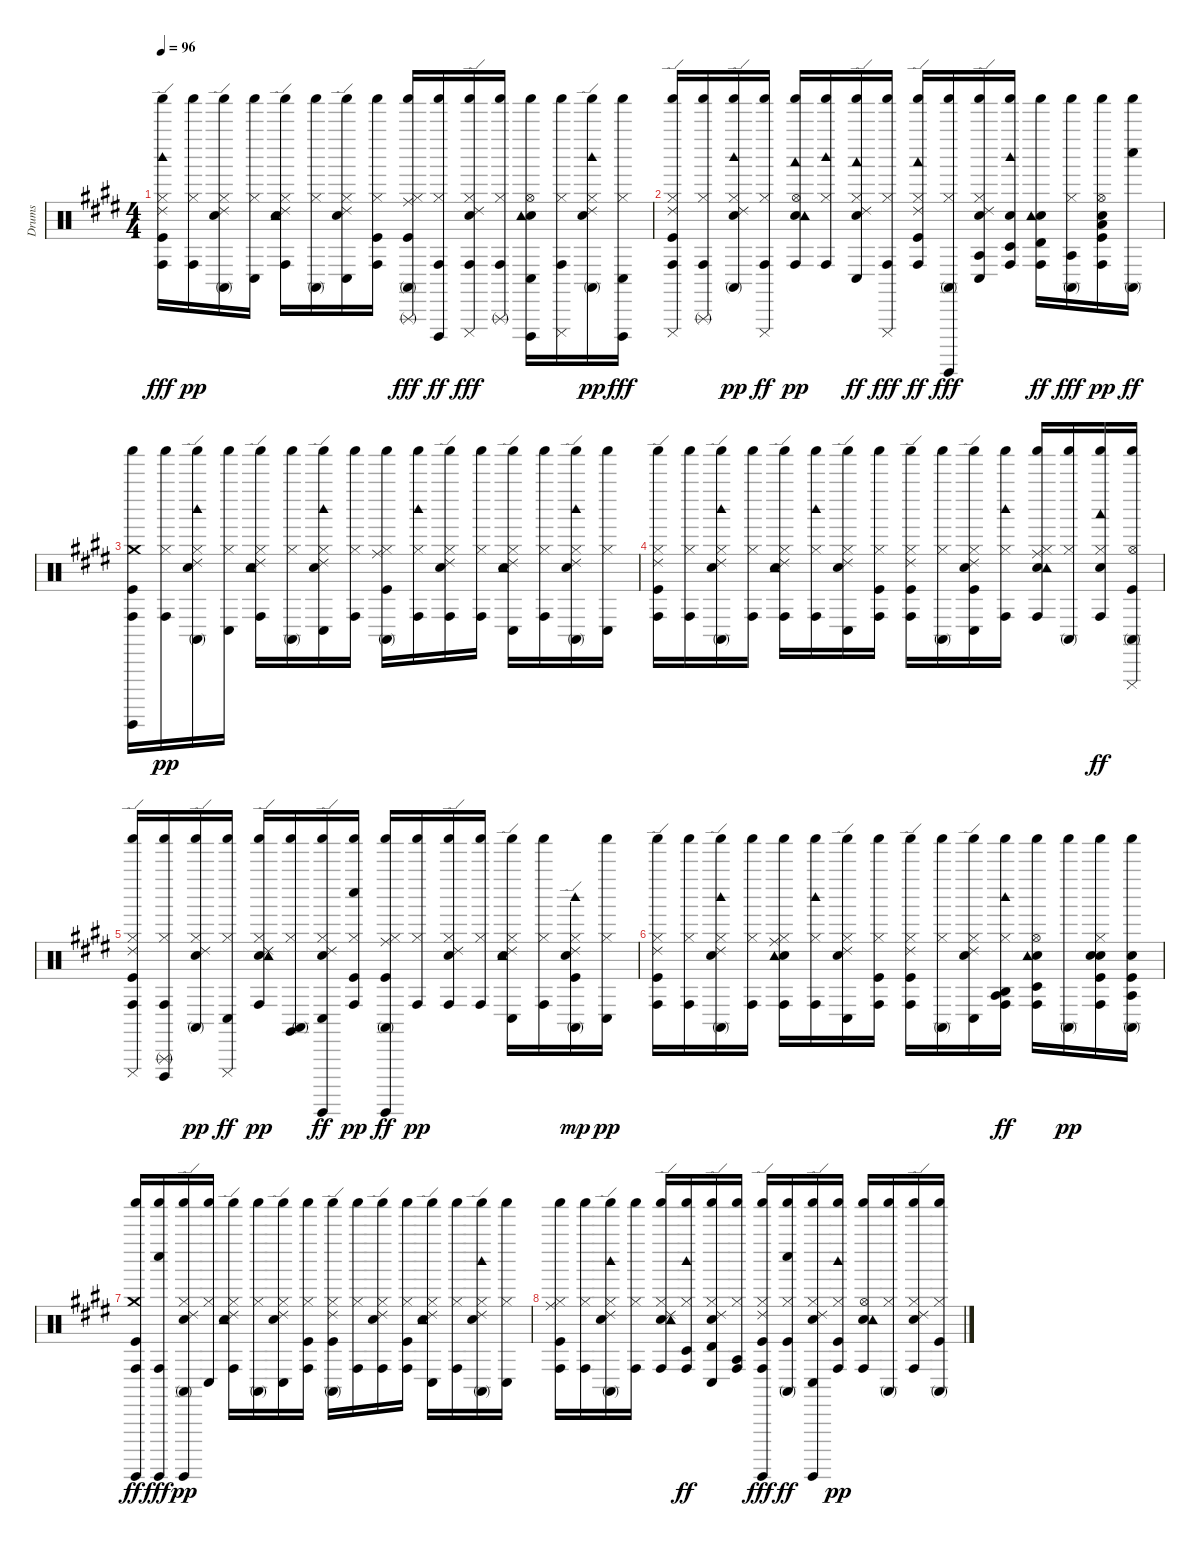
\track ("Drums" "Drums") {instrument percussion}
\staff {score}
\articulation defaults
\ts (4 4)
\tempo 96
\clef neutral
\ks e
("Kick (hit)" "Hi-Hat (closed)" "Ride (edge) 2" "Conga high (hit)" "Shaker (hit)" "Woodblock high (hit)").16{dy fff} ("Hi-Hat (closed)" "Conga high (hit)" "Shaker (hit)").16{dy pp} ("Hand Clap (hit)" "Hi-Hat (closed)" "Ride (edge) 2" "Conga high (mute)" "Shaker (hit)").16 ("Hi-Hat (closed)" "Conga low (hit)" "Shaker (hit)").16 ("Electric Snare (hit)" "Hi-Hat (closed)" "Tambourine (hit)" "Ride (edge) 2" "Conga high (hit)" "Shaker (hit)").16 ("Hi-Hat (closed)" "Conga high (mute)" "Shaker (hit)").16 ("Hand Clap (hit)" "Hi-Hat (closed)" "Ride (edge) 2" "Conga low (hit)" "Shaker (hit)").16 ("Kick (hit)" "Hi-Hat (closed)" "Conga high (hit)" "Shaker (hit)").16 ("Kick (hit)" "Hi-Hat (closed)" "Ride (middle)" "Conga high (mute)" "Shaker (hit)" "Triangle (rnute)").16{dy fff} ("Hi-Hat (closed)" "Conga high (hit)" "Shaker (hit)" "Cuica (open)").16{dy ff} ("Hand Clap (hit)" "Hi-Hat (closed)" "Ride (edge) 2" "Conga high (hit)" "Shaker (hit)" "Cuica (mute)").16{dy fff} ("Hi-Hat (closed)" "Conga high (hit)" "Shaker (hit)" "Triangle (rnute)").16 ("Electric Snare (hit)" "Hi-Hat (open)" "Tambourine (hit)" "Conga low (hit)" "Shaker (hit)" "Cuica (open)").16 ("Hi-Hat (closed)" "Conga high (hit)" "Shaker (hit)" "Cuica (mute)").16 ("Hand Clap (hit)" "Hi-Hat (closed)" "Ride (edge) 2" "Conga high (mute)" "Woodblock high (hit)" "Shaker (hit)").16{dy pp} ("Hi-Hat (closed)" "Conga low (hit)" "Shaker (hit)" "Cuica (open)").16{dy fff} |
("Kick (hit)" "Hi-Hat (closed)" "Ride (edge) 2" "Conga high (hit)" "Shaker (hit)" "Cuica (mute)").16 ("Hi-Hat (closed)" "Conga high (hit)" "Shaker (hit)" "Triangle (rnute)").16 ("Hand Clap (hit)" "Hi-Hat (closed)" "Ride (edge) 2" "Conga high (mute)" "Woodblock high (hit)" "Shaker (hit)").16{dy pp} ("Hi-Hat (closed)" "Conga high (hit)" "Shaker (hit)" "Cuica (mute)").16{dy ff} ("Electric Snare (hit)" "Hi-Hat (open)" "Tambourine (hit)" "Conga high (hit)" "Shaker (hit)" "Woodblock low (hit)").16{dy pp} ("Hi-Hat (closed)" "Conga high (hit)" "Woodblock high (hit)" "Shaker (hit)").16 ("Hand Clap (hit)" "Hi-Hat (closed)" "Ride (edge) 2" "Conga low (hit)" "Shaker (hit)" "Woodblock low (hit)").16{dy ff} ("Hi-Hat (closed)" "Conga high (hit)" "Shaker (hit)" "Cuica (mute)").16{dy fff} ("Kick (hit)" "Hi-Hat (closed)" "Ride (edge) 2" "Conga high (hit)" "Shaker (hit)" "Woodblock low (hit)").16{dy ff} ("Hi-Hat (closed)" "Conga high (mute)" "Shaker (hit)" "Guiro (hit)").16{dy fff} ("Hand Clap (hit)" "Hi-Hat (closed)" "Ride (edge) 2" "Conga low (hit)" "Shaker (hit)" "Agogo tow (hit)").16 ("Electric Snare (hit)" "Conga high (hit)" "Woodblock high (hit)" "Shaker (hit)" "Timbale low (hit)").16 ("Electric Snare (hit)" "Tambourine (hit)" "Conga high (hit)" "Shaker (hit)" "Timbale high (hit)").16{dy ff} ("Hi-Hat (closed)" "Conga high (mute)" "Shaker (hit)" "Agogo tow (hit)").16{dy fff} ("Kick (hit)" "Hand Clap (hit)" "Low Tom (hit)" "Hi-Hat (open)" "Conga high (hit)" "Shaker (hit)").16{dy pp} ("Conga high (mute)" "Shaker (hit)" "Whistle low (hit)").16{dy ff} |
("Kick (hit)" "Crash medium (hit)" "Conga high (hit)" "Shaker (hit)" "Guiro (hit)").16 ("Hi-Hat (closed)" "Conga high (hit)" "Shaker (hit)").16{dy pp} ("Hand Clap (hit)" "Hi-Hat (closed)" "Ride (edge) 2" "Conga high (mute)" "Woodblock high (hit)" "Shaker (hit)").16 ("Hi-Hat (closed)" "Conga low (hit)" "Shaker (hit)").16 ("Electric Snare (hit)" "Hi-Hat (closed)" "Tambourine (hit)" "Ride (edge) 2" "Conga high (hit)" "Shaker (hit)").16 ("Hi-Hat (closed)" "Conga high (mute)" "Shaker (hit)").16 ("Hand Clap (hit)" "Hi-Hat (closed)" "Ride (edge) 2" "Conga low (hit)" "Woodblock high (hit)" "Shaker (hit)").16 ("Hi-Hat (closed)" "Conga high (hit)" "Shaker (hit)").16 ("Kick (hit)" "Hi-Hat (closed)" "Ride (middle)" "Conga high (mute)" "Shaker (hit)").16 ("Hi-Hat (closed)" "Conga high (hit)" "Woodblock high (hit)" "Shaker (hit)").16 ("Hand Clap (hit)" "Hi-Hat (closed)" "Ride (edge) 2" "Conga high (hit)" "Shaker (hit)").16 ("Hi-Hat (closed)" "Conga high (hit)" "Shaker (hit)").16 ("Electric Snare (hit)" "Hi-Hat (closed)" "Tambourine (hit)" "Ride (edge) 2" "Conga low (hit)" "Shaker (hit)").16 ("Hi-Hat (closed)" "Conga high (hit)" "Shaker (hit)").16 ("Hand Clap (hit)" "Hi-Hat (closed)" "Ride (edge) 2" "Conga high (mute)" "Woodblock high (hit)" "Shaker (hit)").16 ("Hi-Hat (closed)" "Conga low (hit)" "Shaker (hit)").16 |
("Kick (hit)" "Hi-Hat (closed)" "Ride (edge) 2" "Conga high (hit)" "Shaker (hit)").16 ("Hi-Hat (closed)" "Conga high (hit)" "Shaker (hit)").16 ("Hand Clap (hit)" "Hi-Hat (closed)" "Ride (edge) 2" "Conga high (mute)" "Woodblock high (hit)" "Shaker (hit)").16 ("Hi-Hat (closed)" "Conga high (hit)" "Shaker (hit)").16 ("Electric Snare (hit)" "Hi-Hat (closed)" "Tambourine (hit)" "Ride (edge) 2" "Conga high (hit)" "Shaker (hit)").16 ("Hi-Hat (closed)" "Conga high (hit)" "Woodblock high (hit)" "Shaker (hit)").16 ("Hand Clap (hit)" "Hi-Hat (closed)" "Ride (edge) 2" "Conga low (hit)" "Shaker (hit)").16 ("Kick (hit)" "Hi-Hat (closed)" "Conga high (hit)" "Shaker (hit)").16 ("Kick (hit)" "Hi-Hat (closed)" "Ride (edge) 2" "Conga high (hit)" "Shaker (hit)").16 ("Hi-Hat (closed)" "Conga high (mute)" "Shaker (hit)").16 ("Kick (hit)" "Hand Clap (hit)" "Hi-Hat (closed)" "Ride (edge) 2" "Conga low (hit)" "Shaker (hit)").16 ("Hi-Hat (closed)" "Conga high (hit)" "Woodblock high (hit)" "Shaker (hit)").16 ("Electric Snare (hit)" "Hi-Hat (closed)" "Ride (middle)" "Tambourine (hit)" "Conga high (hit)" "Shaker (hit)").16 ("Hi-Hat (closed)" "Conga high (mute)" "Shaker (hit)").16 ("Hand Clap (hit)" "Hi-Hat (closed)" "Conga high (hit)" "Shaker (hit)" "Woodblock low (hit)").16{dy ff} ("Kick (hit)" "Hi-Hat (open)" "Conga high (mute)" "Shaker (hit)" "Cuica (mute)").16 |
("Kick (hit)" "Hi-Hat (closed)" "Ride (edge) 2" "Conga high (hit)" "Shaker (hit)" "Cuica (mute)").16 ("Hi-Hat (closed)" "Conga high (hit)" "Shaker (hit)" "Cuica (open)" "Triangle (rnute)").16 ("Hand Clap (hit)" "Hi-Hat (closed)" "Ride (edge) 2" "Conga high (mute)" "Shaker (hit)").16{dy pp} ("Hi-Hat (closed)" "Conga low (hit)" "Shaker (hit)" "Cuica (mute)").16{dy ff} ("Electric Snare (hit)" "Hi-Hat (closed)" "Tambourine (hit)" "Ride (edge) 2" "Conga high (hit)" "Shaker (hit)").16{dy pp} ("Hi-Hat (closed)" "Conga high (mute)" "Shaker (hit)" "Claves (hit)").16 ("Hand Clap (hit)" "Hi-Hat (closed)" "Ride (edge) 2" "Conga low (hit)" "Shaker (hit)" "Guiro (hit)").16{dy ff} ("Kick (hit)" "Hi-Hat (closed)" "Conga high (hit)" "Shaker (hit)" "Whistle low (hit)").16{dy pp} ("Kick (hit)" "Hi-Hat (closed)" "Ride (middle)" "Conga high (mute)" "Shaker (hit)" "Guiro (hit)").16{dy ff} ("Hi-Hat (closed)" "Conga high (hit)" "Shaker (hit)").16{dy pp} ("Hand Clap (hit)" "Hi-Hat (closed)" "Ride (edge) 2" "Conga high (hit)" "Shaker (hit)").16 ("Hi-Hat (closed)" "Conga high (hit)" "Shaker (hit)").16 ("Electric Snare (hit)" "Hi-Hat (closed)" "Tambourine (hit)" "Ride (edge) 2" "Conga low (hit)" "Shaker (hit)").16 ("Hi-Hat (closed)" "Conga high (hit)" "Shaker (hit)").16 ("Kick (hit)" "Hand Clap (hit)" "Hi-Hat (closed)" "Ride (edge) 2" "Conga high (mute)" "Woodblock high (hit)").16{dy mp} ("Hi-Hat (closed)" "Conga low (hit)" "Shaker (hit)").16{dy pp} |
("Kick (hit)" "Hi-Hat (closed)" "Ride (edge) 2" "Conga high (hit)" "Shaker (hit)").16 ("Hi-Hat (closed)" "Conga high (hit)" "Shaker (hit)").16 ("Hand Clap (hit)" "Hi-Hat (closed)" "Ride (edge) 2" "Conga high (mute)" "Woodblock high (hit)" "Shaker (hit)").16 ("Hi-Hat (closed)" "Conga high (hit)" "Shaker (hit)").16 ("Electric Snare (hit)" "Hi-Hat (closed)" "Ride (middle)" "Tambourine (hit)" "Conga high (hit)" "Shaker (hit)").16 ("Hi-Hat (closed)" "Conga high (hit)" "Woodblock high (hit)" "Shaker (hit)").16 ("Hand Clap (hit)" "Hi-Hat (closed)" "Ride (edge) 2" "Conga low (hit)" "Shaker (hit)").16 ("Kick (hit)" "Hi-Hat (closed)" "Conga high (hit)" "Shaker (hit)").16 ("Kick (hit)" "Hi-Hat (closed)" "Ride (edge) 2" "Conga high (hit)" "Shaker (hit)").16 ("Hi-Hat (closed)" "Conga high (mute)" "Shaker (hit)").16 ("Hand Clap (hit)" "Hi-Hat (closed)" "Ride (edge) 2" "Conga low (hit)" "Shaker (hit)").16 ("Hi-Hat (closed)" "Conga high (hit)" "Woodblock high (hit)" "Shaker (hit)" "Agogo high (hit)" "Agogo tow (hit)").16{dy ff} ("Electric Snare (hit)" "Hi-Hat (open)" "Tambourine (hit)" "Conga high (hit)" "Shaker (hit)" "Timbale low (hit)").16 ("Conga high (mute)" "Shaker (hit)").16{dy pp} ("Kick (hit)" "Hand Clap (hit)" "Electric Snare (hit)" "Hi-Hat (closed)" "Conga high (hit)" "Shaker (hit)").16 ("Kick (hit)" "Electric Snare (hit)" "Conga high (mute)" "Shaker (hit)" "Agogo tow (hit)").16 |
("Kick (hit)" "Crash medium (hit)" "Conga high (hit)" "Shaker (hit)" "Guiro (hit)").16{dy ff} ("Conga high (hit)" "Shaker (hit)" "Whistle low (hit)" "Guiro (hit)").16{dy fff} ("Hand Clap (hit)" "Hi-Hat (closed)" "Ride (edge) 2" "Conga high (mute)" "Shaker (hit)" "Guiro (hit)").16{dy pp} ("Hi-Hat (closed)" "Conga low (hit)" "Shaker (hit)").16 ("Electric Snare (hit)" "Hi-Hat (closed)" "Tambourine (hit)" "Ride (edge) 2" "Conga high (hit)" "Shaker (hit)").16 ("Hi-Hat (closed)" "Conga high (mute)" "Shaker (hit)").16 ("Hand Clap (hit)" "Hi-Hat (closed)" "Ride (edge) 2" "Conga low (hit)" "Shaker (hit)").16 ("Kick (hit)" "Hi-Hat (closed)" "Conga high (hit)" "Shaker (hit)").16 ("Kick (hit)" "Hi-Hat (closed)" "Ride (edge) 2" "Conga high (mute)" "Shaker (hit)").16 ("Hi-Hat (closed)" "Conga high (hit)" "Shaker (hit)").16 ("Hand Clap (hit)" "Hi-Hat (closed)" "Ride (edge) 2" "Conga high (hit)" "Shaker (hit)").16 ("Kick (hit)" "Hi-Hat (closed)" "Conga high (hit)" "Shaker (hit)").16 ("Electric Snare (hit)" "Hi-Hat (closed)" "Tambourine (hit)" "Ride (edge) 2" "Conga low (hit)" "Shaker (hit)").16 ("Hi-Hat (closed)" "Conga high (hit)" "Shaker (hit)").16 ("Hand Clap (hit)" "Hi-Hat (closed)" "Ride (edge) 2" "Conga high (mute)" "Woodblock high (hit)" "Shaker (hit)").16 ("Hi-Hat (closed)" "Conga low (hit)" "Shaker (hit)").16 |
("Kick (hit)" "Hi-Hat (closed)" "Ride (middle)" "Conga high (hit)" "Shaker (hit)").16 ("Hi-Hat (closed)" "Conga high (hit)" "Shaker (hit)").16 ("Hand Clap (hit)" "Hi-Hat (closed)" "Ride (edge) 2" "Conga high (mute)" "Woodblock high (hit)" "Shaker (hit)").16 ("Hi-Hat (closed)" "Conga high (hit)" "Shaker (hit)").16 ("Electric Snare (hit)" "Hi-Hat (closed)" "Tambourine (hit)" "Ride (edge) 2" "Conga high (hit)" "Shaker (hit)").16 ("Hi-Hat (closed)" "Conga high (hit)" "Woodblock high (hit)" "Shaker (hit)" "Timbale low (hit)").16{dy ff} ("Hand Clap (hit)" "Hi-Hat (closed)" "Ride (edge) 2" "Conga low (hit)" "Shaker (hit)" "Timbale high (hit)").16 ("Hi-Hat (closed)" "Conga high (hit)" "Shaker (hit)" "Agogo tow (hit)").16 ("Kick (hit)" "Hi-Hat (closed)" "Ride (edge) 2" "Conga high (hit)" "Shaker (hit)" "Guiro (hit)").16{dy fff} ("Kick (hit)" "Hi-Hat (closed)" "Conga high (mute)" "Shaker (hit)" "Whistle low (hit)").16{dy ff} ("Hand Clap (hit)" "Hi-Hat (closed)" "Ride (edge) 2" "Conga low (hit)" "Shaker (hit)" "Guiro (hit)").16 ("Kick (hit)" "Hi-Hat (closed)" "Conga high (hit)" "Woodblock high (hit)" "Shaker (hit)").16{dy pp} ("Electric Snare (hit)" "Hi-Hat (open)" "Tambourine (hit)" "Conga high (hit)" "Shaker (hit)").16 ("Hi-Hat (closed)" "Conga high (mute)" "Shaker (hit)").16 ("Hand Clap (hit)" "Hi-Hat (closed)" "Ride (edge) 2" "Conga high (hit)" "Shaker (hit)").16 ("Kick (hit)" "Hi-Hat (closed)" "Conga high (mute)" "Shaker (hit)").16
